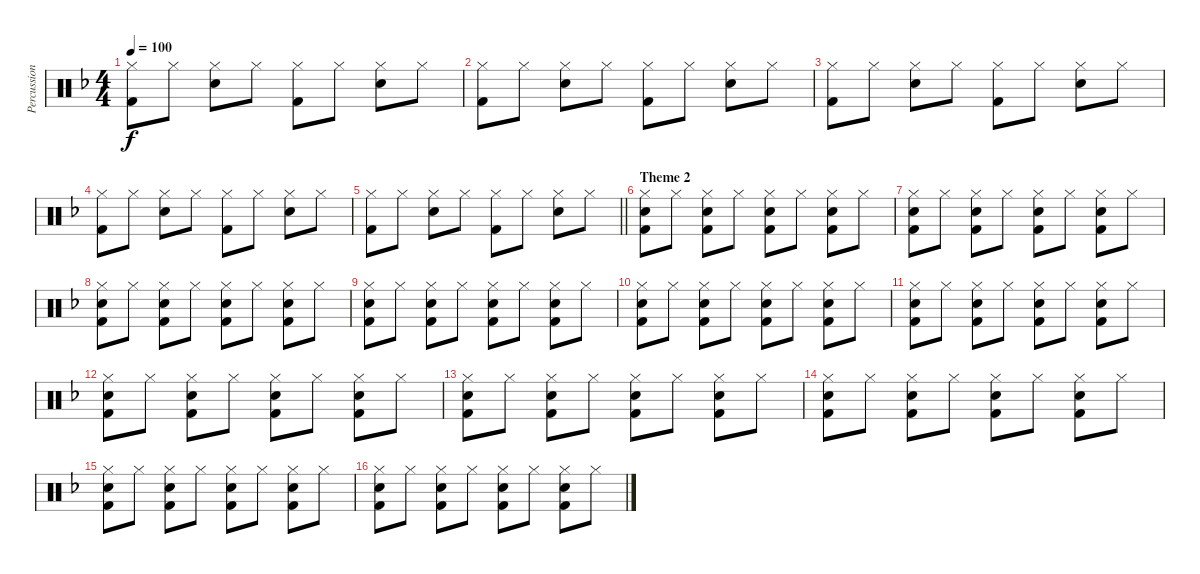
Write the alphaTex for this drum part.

\track ("Percussion" "Percussion") {instrument percussion}
\staff {score}
\articulation defaults
\ts (4 4)
\tempo 100
\clef neutral
\ks f
("Kick (hit) 2" "Hi-Hat (closed)").8{dy f} "Hi-Hat (closed)".8 ("Hi-Hat (closed)" "Snare (hit) 2").8 "Hi-Hat (closed)".8 ("Kick (hit) 2" "Hi-Hat (closed)").8 "Hi-Hat (closed)".8 ("Hi-Hat (closed)" "Snare (hit) 2").8 "Hi-Hat (closed)".8 |
("Kick (hit) 2" "Hi-Hat (closed)").8 "Hi-Hat (closed)".8 ("Hi-Hat (closed)" "Snare (hit) 2").8 "Hi-Hat (closed)".8 ("Kick (hit) 2" "Hi-Hat (closed)").8 "Hi-Hat (closed)".8 ("Hi-Hat (closed)" "Snare (hit) 2").8 "Hi-Hat (closed)".8 |
("Kick (hit) 2" "Hi-Hat (closed)").8 "Hi-Hat (closed)".8 ("Hi-Hat (closed)" "Snare (hit) 2").8 "Hi-Hat (closed)".8 ("Kick (hit) 2" "Hi-Hat (closed)").8 "Hi-Hat (closed)".8 ("Hi-Hat (closed)" "Snare (hit) 2").8 "Hi-Hat (closed)".8 |
("Kick (hit) 2" "Hi-Hat (closed)").8 "Hi-Hat (closed)".8 ("Hi-Hat (closed)" "Snare (hit) 2").8 "Hi-Hat (closed)".8 ("Kick (hit) 2" "Hi-Hat (closed)").8 "Hi-Hat (closed)".8 ("Hi-Hat (closed)" "Snare (hit) 2").8 "Hi-Hat (closed)".8 |
\barLineRight lightlight
("Kick (hit) 2" "Hi-Hat (closed)").8 "Hi-Hat (closed)".8 ("Hi-Hat (closed)" "Snare (hit) 2").8 "Hi-Hat (closed)".8 ("Kick (hit) 2" "Hi-Hat (closed)").8 "Hi-Hat (closed)".8 ("Hi-Hat (closed)" "Snare (hit) 2").8 "Hi-Hat (closed)".8 |
\section ("" "Theme 2")
("Hi-Hat (closed)" "Snare (hit) 2" "Kick (hit) 2").8 "Hi-Hat (closed)".8 ("Hi-Hat (closed)" "Snare (hit) 2" "Kick (hit) 2").8 "Hi-Hat (closed)".8 ("Hi-Hat (closed)" "Snare (hit) 2" "Kick (hit) 2").8 "Hi-Hat (closed)".8 ("Hi-Hat (closed)" "Snare (hit) 2" "Kick (hit) 2").8 "Hi-Hat (closed)".8 |
("Hi-Hat (closed)" "Snare (hit) 2" "Kick (hit) 2").8 "Hi-Hat (closed)".8 ("Hi-Hat (closed)" "Snare (hit) 2" "Kick (hit) 2").8 "Hi-Hat (closed)".8 ("Hi-Hat (closed)" "Snare (hit) 2" "Kick (hit) 2").8 "Hi-Hat (closed)".8 ("Hi-Hat (closed)" "Snare (hit) 2" "Kick (hit) 2").8 "Hi-Hat (closed)".8 |
("Hi-Hat (closed)" "Snare (hit) 2" "Kick (hit) 2").8 "Hi-Hat (closed)".8 ("Hi-Hat (closed)" "Snare (hit) 2" "Kick (hit) 2").8 "Hi-Hat (closed)".8 ("Hi-Hat (closed)" "Snare (hit) 2" "Kick (hit) 2").8 "Hi-Hat (closed)".8 ("Hi-Hat (closed)" "Snare (hit) 2" "Kick (hit) 2").8 "Hi-Hat (closed)".8 |
("Hi-Hat (closed)" "Snare (hit) 2" "Kick (hit) 2").8 "Hi-Hat (closed)".8 ("Hi-Hat (closed)" "Snare (hit) 2" "Kick (hit) 2").8 "Hi-Hat (closed)".8 ("Hi-Hat (closed)" "Snare (hit) 2" "Kick (hit) 2").8 "Hi-Hat (closed)".8 ("Hi-Hat (closed)" "Snare (hit) 2" "Kick (hit) 2").8 "Hi-Hat (closed)".8 |
("Hi-Hat (closed)" "Snare (hit) 2" "Kick (hit) 2").8 "Hi-Hat (closed)".8 ("Hi-Hat (closed)" "Snare (hit) 2" "Kick (hit) 2").8 "Hi-Hat (closed)".8 ("Hi-Hat (closed)" "Snare (hit) 2" "Kick (hit) 2").8 "Hi-Hat (closed)".8 ("Hi-Hat (closed)" "Snare (hit) 2" "Kick (hit) 2").8 "Hi-Hat (closed)".8 |
("Hi-Hat (closed)" "Snare (hit) 2" "Kick (hit) 2").8 "Hi-Hat (closed)".8 ("Hi-Hat (closed)" "Snare (hit) 2" "Kick (hit) 2").8 "Hi-Hat (closed)".8 ("Hi-Hat (closed)" "Snare (hit) 2" "Kick (hit) 2").8 "Hi-Hat (closed)".8 ("Hi-Hat (closed)" "Snare (hit) 2" "Kick (hit) 2").8 "Hi-Hat (closed)".8 |
("Hi-Hat (closed)" "Snare (hit) 2" "Kick (hit) 2").8 "Hi-Hat (closed)".8 ("Hi-Hat (closed)" "Snare (hit) 2" "Kick (hit) 2").8 "Hi-Hat (closed)".8 ("Hi-Hat (closed)" "Snare (hit) 2" "Kick (hit) 2").8 "Hi-Hat (closed)".8 ("Hi-Hat (closed)" "Snare (hit) 2" "Kick (hit) 2").8 "Hi-Hat (closed)".8 |
("Hi-Hat (closed)" "Snare (hit) 2" "Kick (hit) 2").8 "Hi-Hat (closed)".8 ("Hi-Hat (closed)" "Snare (hit) 2" "Kick (hit) 2").8 "Hi-Hat (closed)".8 ("Hi-Hat (closed)" "Snare (hit) 2" "Kick (hit) 2").8 "Hi-Hat (closed)".8 ("Hi-Hat (closed)" "Snare (hit) 2" "Kick (hit) 2").8 "Hi-Hat (closed)".8 |
("Hi-Hat (closed)" "Snare (hit) 2" "Kick (hit) 2").8 "Hi-Hat (closed)".8 ("Hi-Hat (closed)" "Snare (hit) 2" "Kick (hit) 2").8 "Hi-Hat (closed)".8 ("Hi-Hat (closed)" "Snare (hit) 2" "Kick (hit) 2").8 "Hi-Hat (closed)".8 ("Hi-Hat (closed)" "Snare (hit) 2" "Kick (hit) 2").8 "Hi-Hat (closed)".8 |
("Hi-Hat (closed)" "Snare (hit) 2" "Kick (hit) 2").8 "Hi-Hat (closed)".8 ("Hi-Hat (closed)" "Snare (hit) 2" "Kick (hit) 2").8 "Hi-Hat (closed)".8 ("Hi-Hat (closed)" "Snare (hit) 2" "Kick (hit) 2").8 "Hi-Hat (closed)".8 ("Hi-Hat (closed)" "Snare (hit) 2" "Kick (hit) 2").8 "Hi-Hat (closed)".8 |
("Hi-Hat (closed)" "Snare (hit) 2" "Kick (hit) 2").8 "Hi-Hat (closed)".8 ("Hi-Hat (closed)" "Snare (hit) 2" "Kick (hit) 2").8 "Hi-Hat (closed)".8 ("Hi-Hat (closed)" "Snare (hit) 2" "Kick (hit) 2").8 "Hi-Hat (closed)".8 ("Hi-Hat (closed)" "Snare (hit) 2" "Kick (hit) 2").8 "Hi-Hat (closed)".8
